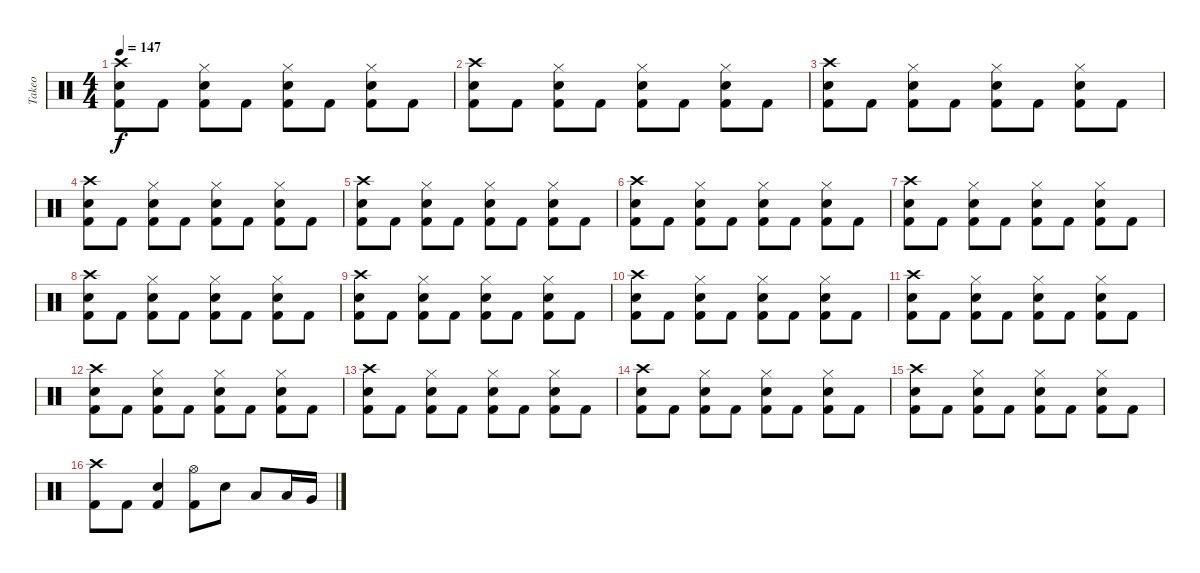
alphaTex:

\track ("Takeo" "Takeo") {instrument percussion}
\staff {score}
\articulation defaults
\ts (4 4)
\tempo 147
\clef neutral
\ks c
("Kick (hit) 2" "Snare (hit) 2" "Crash high (hit)").8{dy f} "Kick (hit) 2".8 ("Kick (hit) 2" "Snare (hit) 2" "Hi-Hat (closed)").8 "Kick (hit) 2".8 ("Kick (hit) 2" "Snare (hit) 2" "Hi-Hat (closed)").8 "Kick (hit) 2".8 ("Kick (hit) 2" "Snare (hit) 2" "Hi-Hat (closed)").8 "Kick (hit) 2".8 |
("Kick (hit) 2" "Snare (hit) 2" "Crash high (hit)").8 "Kick (hit) 2".8 ("Kick (hit) 2" "Snare (hit) 2" "Hi-Hat (closed)").8 "Kick (hit) 2".8 ("Kick (hit) 2" "Snare (hit) 2" "Hi-Hat (closed)").8 "Kick (hit) 2".8 ("Kick (hit) 2" "Snare (hit) 2" "Hi-Hat (closed)").8 "Kick (hit) 2".8 |
("Kick (hit) 2" "Snare (hit) 2" "Crash high (hit)").8 "Kick (hit) 2".8 ("Kick (hit) 2" "Snare (hit) 2" "Hi-Hat (closed)").8 "Kick (hit) 2".8 ("Kick (hit) 2" "Snare (hit) 2" "Hi-Hat (closed)").8 "Kick (hit) 2".8 ("Kick (hit) 2" "Snare (hit) 2" "Hi-Hat (closed)").8 "Kick (hit) 2".8 |
("Kick (hit) 2" "Snare (hit) 2" "Crash high (hit)").8 "Kick (hit) 2".8 ("Kick (hit) 2" "Snare (hit) 2" "Hi-Hat (closed)").8 "Kick (hit) 2".8 ("Kick (hit) 2" "Snare (hit) 2" "Hi-Hat (closed)").8 "Kick (hit) 2".8 ("Kick (hit) 2" "Snare (hit) 2" "Hi-Hat (closed)").8 "Kick (hit) 2".8 |
("Kick (hit) 2" "Snare (hit) 2" "Crash high (hit)").8 "Kick (hit) 2".8 ("Kick (hit) 2" "Snare (hit) 2" "Hi-Hat (closed)").8 "Kick (hit) 2".8 ("Kick (hit) 2" "Snare (hit) 2" "Hi-Hat (closed)").8 "Kick (hit) 2".8 ("Kick (hit) 2" "Snare (hit) 2" "Hi-Hat (closed)").8 "Kick (hit) 2".8 |
("Kick (hit) 2" "Snare (hit) 2" "Crash high (hit)").8 "Kick (hit) 2".8 ("Kick (hit) 2" "Snare (hit) 2" "Hi-Hat (closed)").8 "Kick (hit) 2".8 ("Kick (hit) 2" "Snare (hit) 2" "Hi-Hat (closed)").8 "Kick (hit) 2".8 ("Kick (hit) 2" "Snare (hit) 2" "Hi-Hat (closed)").8 "Kick (hit) 2".8 |
("Kick (hit) 2" "Snare (hit) 2" "Crash high (hit)").8 "Kick (hit) 2".8 ("Kick (hit) 2" "Snare (hit) 2" "Hi-Hat (closed)").8 "Kick (hit) 2".8 ("Kick (hit) 2" "Snare (hit) 2" "Hi-Hat (closed)").8 "Kick (hit) 2".8 ("Kick (hit) 2" "Snare (hit) 2" "Hi-Hat (closed)").8 "Kick (hit) 2".8 |
("Kick (hit) 2" "Snare (hit) 2" "Crash high (hit)").8 "Kick (hit) 2".8 ("Kick (hit) 2" "Snare (hit) 2" "Hi-Hat (closed)").8 "Kick (hit) 2".8 ("Kick (hit) 2" "Snare (hit) 2" "Hi-Hat (closed)").8 "Kick (hit) 2".8 ("Kick (hit) 2" "Snare (hit) 2" "Hi-Hat (closed)").8 "Kick (hit) 2".8 |
("Kick (hit) 2" "Snare (hit) 2" "Crash high (hit)").8 "Kick (hit) 2".8 ("Kick (hit) 2" "Snare (hit) 2" "Hi-Hat (closed)").8 "Kick (hit) 2".8 ("Kick (hit) 2" "Snare (hit) 2" "Hi-Hat (closed)").8 "Kick (hit) 2".8 ("Kick (hit) 2" "Snare (hit) 2" "Hi-Hat (closed)").8 "Kick (hit) 2".8 |
("Kick (hit) 2" "Snare (hit) 2" "Crash high (hit)").8 "Kick (hit) 2".8 ("Kick (hit) 2" "Snare (hit) 2" "Hi-Hat (closed)").8 "Kick (hit) 2".8 ("Kick (hit) 2" "Snare (hit) 2" "Hi-Hat (closed)").8 "Kick (hit) 2".8 ("Kick (hit) 2" "Snare (hit) 2" "Hi-Hat (closed)").8 "Kick (hit) 2".8 |
("Kick (hit) 2" "Snare (hit) 2" "Crash high (hit)").8 "Kick (hit) 2".8 ("Kick (hit) 2" "Snare (hit) 2" "Hi-Hat (closed)").8 "Kick (hit) 2".8 ("Kick (hit) 2" "Snare (hit) 2" "Hi-Hat (closed)").8 "Kick (hit) 2".8 ("Kick (hit) 2" "Snare (hit) 2" "Hi-Hat (closed)").8 "Kick (hit) 2".8 |
("Kick (hit) 2" "Snare (hit) 2" "Crash high (hit)").8 "Kick (hit) 2".8 ("Kick (hit) 2" "Snare (hit) 2" "Hi-Hat (closed)").8 "Kick (hit) 2".8 ("Kick (hit) 2" "Snare (hit) 2" "Hi-Hat (closed)").8 "Kick (hit) 2".8 ("Kick (hit) 2" "Snare (hit) 2" "Hi-Hat (closed)").8 "Kick (hit) 2".8 |
("Kick (hit) 2" "Snare (hit) 2" "Crash high (hit)").8 "Kick (hit) 2".8 ("Kick (hit) 2" "Snare (hit) 2" "Hi-Hat (closed)").8 "Kick (hit) 2".8 ("Kick (hit) 2" "Snare (hit) 2" "Hi-Hat (closed)").8 "Kick (hit) 2".8 ("Kick (hit) 2" "Snare (hit) 2" "Hi-Hat (closed)").8 "Kick (hit) 2".8 |
("Kick (hit) 2" "Snare (hit) 2" "Crash high (hit)").8 "Kick (hit) 2".8 ("Kick (hit) 2" "Snare (hit) 2" "Hi-Hat (closed)").8 "Kick (hit) 2".8 ("Kick (hit) 2" "Snare (hit) 2" "Hi-Hat (closed)").8 "Kick (hit) 2".8 ("Kick (hit) 2" "Snare (hit) 2" "Hi-Hat (closed)").8 "Kick (hit) 2".8 |
("Kick (hit) 2" "Snare (hit) 2" "Crash high (hit)").8 "Kick (hit) 2".8 ("Kick (hit) 2" "Snare (hit) 2" "Hi-Hat (closed)").8 "Kick (hit) 2".8 ("Kick (hit) 2" "Snare (hit) 2" "Hi-Hat (closed)").8 "Kick (hit) 2".8 ("Kick (hit) 2" "Snare (hit) 2" "Hi-Hat (closed)").8 "Kick (hit) 2".8 |
("Kick (hit) 2" "Crash high (hit)").8 "Kick (hit) 2".8 ("Kick (hit) 2" "Snare (hit) 2").4 ("Kick (hit) 2" "Hi-Hat (open)").8 "Snare (hit) 2".8 "Low Tom (hit)".8 "Low Tom (hit)".16 "Very Low Tom (hit)".16
